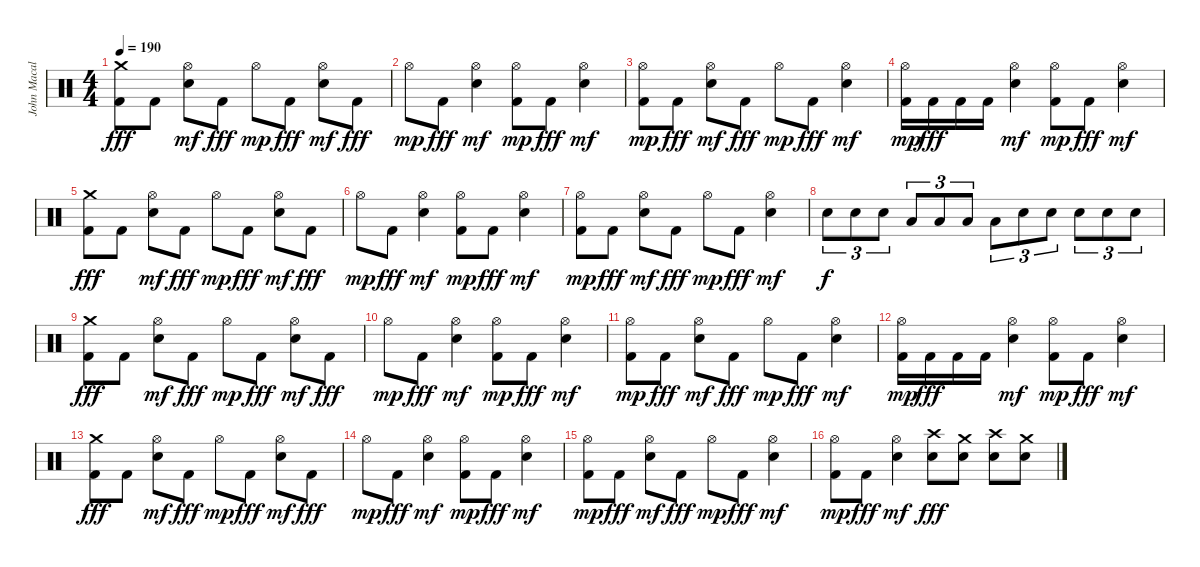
\track ("John Macaluso drums" "John Macal") {instrument percussion}
\staff {score}
\articulation defaults
\ts (4 4)
\tempo 190
\clef neutral
\ks c
("Kick (hit) 2" "Crash medium (hit)").8{dy fff} "Kick (hit) 2".8 ("Snare (hit) 2" "Hi-Hat (open)").8{dy mf} "Kick (hit) 2".8{dy fff} "Hi-Hat (open)".8{dy mp} "Kick (hit) 2".8{dy fff} ("Snare (hit) 2" "Hi-Hat (open)").8{dy mf} "Kick (hit) 2".8{dy fff} |
"Hi-Hat (open)".8{dy mp} "Kick (hit) 2".8{dy fff} ("Snare (hit) 2" "Hi-Hat (open)").4{dy mf} ("Kick (hit) 2" "Hi-Hat (open)").8{dy mp} "Kick (hit) 2".8{dy fff} ("Snare (hit) 2" "Hi-Hat (open)").4{dy mf} |
("Kick (hit) 2" "Hi-Hat (open)").8{dy mp} "Kick (hit) 2".8{dy fff} ("Snare (hit) 2" "Hi-Hat (open)").8{dy mf} "Kick (hit) 2".8{dy fff} "Hi-Hat (open)".8{dy mp} "Kick (hit) 2".8{dy fff} ("Snare (hit) 2" "Hi-Hat (open)").4{dy mf} |
("Kick (hit) 2" "Hi-Hat (open)").16{dy mp} "Kick (hit) 2".16{dy fff} "Kick (hit) 2".16 "Kick (hit) 2".16 ("Snare (hit) 2" "Hi-Hat (open)").4{dy mf} ("Kick (hit) 2" "Hi-Hat (open)").8{dy mp} "Kick (hit) 2".8{dy fff} ("Snare (hit) 2" "Hi-Hat (open)").4{dy mf} |
("Kick (hit) 2" "Crash medium (hit)").8{dy fff} "Kick (hit) 2".8 ("Snare (hit) 2" "Hi-Hat (open)").8{dy mf} "Kick (hit) 2".8{dy fff} "Hi-Hat (open)".8{dy mp} "Kick (hit) 2".8{dy fff} ("Snare (hit) 2" "Hi-Hat (open)").8{dy mf} "Kick (hit) 2".8{dy fff} |
"Hi-Hat (open)".8{dy mp} "Kick (hit) 2".8{dy fff} ("Snare (hit) 2" "Hi-Hat (open)").4{dy mf} ("Kick (hit) 2" "Hi-Hat (open)").8{dy mp} "Kick (hit) 2".8{dy fff} ("Snare (hit) 2" "Hi-Hat (open)").4{dy mf} |
("Kick (hit) 2" "Hi-Hat (open)").8{dy mp} "Kick (hit) 2".8{dy fff} ("Snare (hit) 2" "Hi-Hat (open)").8{dy mf} "Kick (hit) 2".8{dy fff} "Hi-Hat (open)".8{dy mp} "Kick (hit) 2".8{dy fff} ("Snare (hit) 2" "Hi-Hat (open)").4{dy mf} |
"Electric Snare (hit)".8{tu (3 2) dy f} "Electric Snare (hit)".8{tu (3 2)} "Electric Snare (hit)".8{tu (3 2)} "Low Tom (hit)".8{tu (3 2)} "Low Tom (hit)".8{tu (3 2)} "Low Tom (hit)".8{tu (3 2)} "Low Tom (hit)".8{tu (3 2)} "Electric Snare (hit)".8{tu (3 2)} "Electric Snare (hit)".8{tu (3 2)} "Electric Snare (hit)".8{tu (3 2)} "Electric Snare (hit)".8{tu (3 2)} "Electric Snare (hit)".8{tu (3 2)} |
("Kick (hit) 2" "Crash medium (hit)").8{dy fff} "Kick (hit) 2".8 ("Snare (hit) 2" "Hi-Hat (open)").8{dy mf} "Kick (hit) 2".8{dy fff} "Hi-Hat (open)".8{dy mp} "Kick (hit) 2".8{dy fff} ("Snare (hit) 2" "Hi-Hat (open)").8{dy mf} "Kick (hit) 2".8{dy fff} |
"Hi-Hat (open)".8{dy mp} "Kick (hit) 2".8{dy fff} ("Snare (hit) 2" "Hi-Hat (open)").4{dy mf} ("Kick (hit) 2" "Hi-Hat (open)").8{dy mp} "Kick (hit) 2".8{dy fff} ("Snare (hit) 2" "Hi-Hat (open)").4{dy mf} |
("Kick (hit) 2" "Hi-Hat (open)").8{dy mp} "Kick (hit) 2".8{dy fff} ("Snare (hit) 2" "Hi-Hat (open)").8{dy mf} "Kick (hit) 2".8{dy fff} "Hi-Hat (open)".8{dy mp} "Kick (hit) 2".8{dy fff} ("Snare (hit) 2" "Hi-Hat (open)").4{dy mf} |
("Kick (hit) 2" "Hi-Hat (open)").16{dy mp} "Kick (hit) 2".16{dy fff} "Kick (hit) 2".16 "Kick (hit) 2".16 ("Snare (hit) 2" "Hi-Hat (open)").4{dy mf} ("Kick (hit) 2" "Hi-Hat (open)").8{dy mp} "Kick (hit) 2".8{dy fff} ("Snare (hit) 2" "Hi-Hat (open)").4{dy mf} |
("Kick (hit) 2" "Crash medium (hit)").8{dy fff} "Kick (hit) 2".8 ("Snare (hit) 2" "Hi-Hat (open)").8{dy mf} "Kick (hit) 2".8{dy fff} "Hi-Hat (open)".8{dy mp} "Kick (hit) 2".8{dy fff} ("Snare (hit) 2" "Hi-Hat (open)").8{dy mf} "Kick (hit) 2".8{dy fff} |
"Hi-Hat (open)".8{dy mp} "Kick (hit) 2".8{dy fff} ("Snare (hit) 2" "Hi-Hat (open)").4{dy mf} ("Kick (hit) 2" "Hi-Hat (open)").8{dy mp} "Kick (hit) 2".8{dy fff} ("Snare (hit) 2" "Hi-Hat (open)").4{dy mf} |
("Kick (hit) 2" "Hi-Hat (open)").8{dy mp} "Kick (hit) 2".8{dy fff} ("Snare (hit) 2" "Hi-Hat (open)").8{dy mf} "Kick (hit) 2".8{dy fff} "Hi-Hat (open)".8{dy mp} "Kick (hit) 2".8{dy fff} ("Snare (hit) 2" "Hi-Hat (open)").4{dy mf} |
("Kick (hit) 2" "Hi-Hat (open)").8{dy mp} "Kick (hit) 2".8{dy fff} ("Snare (hit) 2" "Hi-Hat (open)").4{dy mf} ("Snare (hit) 2" "Crash high (hit)").8{dy fff} ("Snare (hit) 2" "Crash medium (hit)").8 ("Snare (hit) 2" "Crash high (hit)").8 ("Snare (hit) 2" "Crash medium (hit)").8
